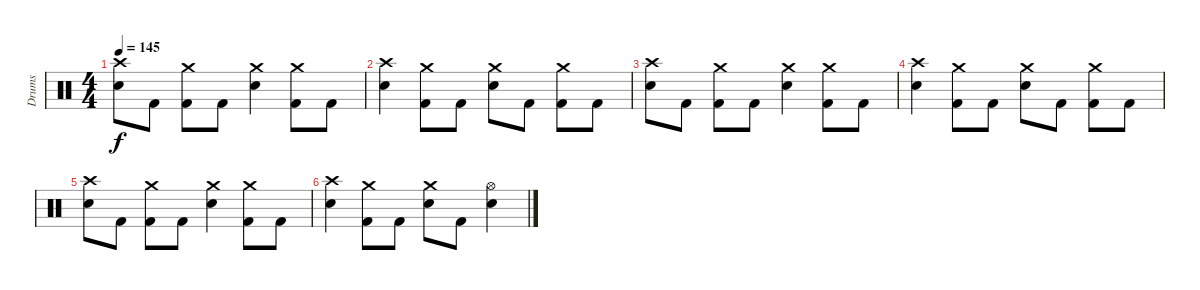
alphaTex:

\track ("Drums" "Drums") {instrument percussion}
\staff {score}
\articulation defaults
\ts (4 4)
\tempo 145
\clef neutral
\ks c
("Crash high (hit)" "Electric Snare (hit)").8{dy f volume 4} "Kick (hit) 2".8 ("Crash medium (hit)" "Kick (hit) 2").8 "Kick (hit) 2".8 ("Crash medium (hit)" "Electric Snare (hit)").4 ("Crash medium (hit)" "Kick (hit) 2").8 "Kick (hit) 2".8 |
("Crash high (hit)" "Electric Snare (hit)").4 ("Crash medium (hit)" "Kick (hit) 2").8 "Kick (hit) 2".8 ("Crash medium (hit)" "Electric Snare (hit)").8 "Kick (hit) 2".8 ("Crash medium (hit)" "Kick (hit) 2").8 "Kick (hit) 2".8 |
("Crash high (hit)" "Electric Snare (hit)").8{volume 2} "Kick (hit) 2".8 ("Crash medium (hit)" "Kick (hit) 2").8 "Kick (hit) 2".8 ("Crash medium (hit)" "Electric Snare (hit)").4 ("Crash medium (hit)" "Kick (hit) 2").8 "Kick (hit) 2".8 |
("Crash high (hit)" "Electric Snare (hit)").4 ("Crash medium (hit)" "Kick (hit) 2").8 "Kick (hit) 2".8 ("Crash medium (hit)" "Electric Snare (hit)").8 "Kick (hit) 2".8 ("Crash medium (hit)" "Kick (hit) 2").8 "Kick (hit) 2".8 |
("Crash high (hit)" "Electric Snare (hit)").8{volume 0} "Kick (hit) 2".8 ("Crash medium (hit)" "Kick (hit) 2").8 "Kick (hit) 2".8 ("Crash medium (hit)" "Electric Snare (hit)").4 ("Crash medium (hit)" "Kick (hit) 2").8 "Kick (hit) 2".8 |
("Crash high (hit)" "Electric Snare (hit)").4 ("Crash medium (hit)" "Kick (hit) 2").8 "Kick (hit) 2".8 ("Crash medium (hit)" "Electric Snare (hit)").8 "Kick (hit) 2".8 ("Hi-Hat (open)" "Electric Snare (hit)").4
